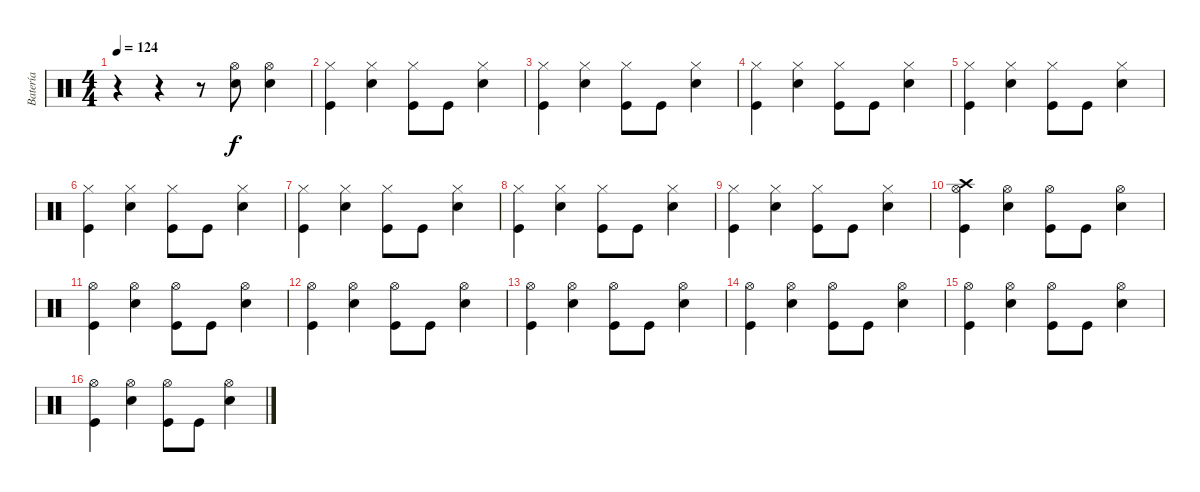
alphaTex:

\track ("Batería" "Batería") {instrument percussion}
\staff {score}
\articulation defaults
\ts (4 4)
\tempo 124
\clef neutral
\ks c
r.4{dy f} r.4 r.8 ("Hi-Hat (open)" "Snare (hit) 2").8 ("Hi-Hat (open)" "Snare (hit) 2").4 |
("Hi-Hat (closed)" "Kick (hit)").4 ("Hi-Hat (closed)" "Snare (hit) 2").4 ("Hi-Hat (closed)" "Kick (hit)").8 "Kick (hit)".8 ("Hi-Hat (closed)" "Snare (hit) 2").4 |
("Hi-Hat (closed)" "Kick (hit)").4 ("Hi-Hat (closed)" "Snare (hit) 2").4 ("Hi-Hat (closed)" "Kick (hit)").8 "Kick (hit)".8 ("Hi-Hat (closed)" "Snare (hit) 2").4 |
("Hi-Hat (closed)" "Kick (hit)").4 ("Hi-Hat (closed)" "Snare (hit) 2").4 ("Hi-Hat (closed)" "Kick (hit)").8 "Kick (hit)".8 ("Hi-Hat (closed)" "Snare (hit) 2").4 |
("Hi-Hat (closed)" "Kick (hit)").4 ("Hi-Hat (closed)" "Snare (hit) 2").4 ("Hi-Hat (closed)" "Kick (hit)").8 "Kick (hit)".8 ("Hi-Hat (closed)" "Snare (hit) 2").4 |
("Hi-Hat (closed)" "Kick (hit)").4 ("Hi-Hat (closed)" "Snare (hit) 2").4 ("Hi-Hat (closed)" "Kick (hit)").8 "Kick (hit)".8 ("Hi-Hat (closed)" "Snare (hit) 2").4 |
("Hi-Hat (closed)" "Kick (hit)").4 ("Hi-Hat (closed)" "Snare (hit) 2").4 ("Hi-Hat (closed)" "Kick (hit)").8 "Kick (hit)".8 ("Hi-Hat (closed)" "Snare (hit) 2").4 |
("Hi-Hat (closed)" "Kick (hit)").4 ("Hi-Hat (closed)" "Snare (hit) 2").4 ("Hi-Hat (closed)" "Kick (hit)").8 "Kick (hit)".8 ("Hi-Hat (closed)" "Snare (hit) 2").4 |
("Hi-Hat (closed)" "Kick (hit)").4 ("Hi-Hat (closed)" "Snare (hit) 2").4 ("Hi-Hat (closed)" "Kick (hit)").8 "Kick (hit)".8 ("Hi-Hat (closed)" "Snare (hit) 2").4 |
("Crash high (hit)" "Hi-Hat (open)" "Kick (hit)").4 ("Hi-Hat (open)" "Snare (hit) 2").4 ("Hi-Hat (open)" "Kick (hit)").8 "Kick (hit)".8 ("Hi-Hat (open)" "Snare (hit) 2").4 |
("Hi-Hat (open)" "Kick (hit)").4 ("Hi-Hat (open)" "Snare (hit) 2").4 ("Hi-Hat (open)" "Kick (hit)").8 "Kick (hit)".8 ("Hi-Hat (open)" "Snare (hit) 2").4 |
("Hi-Hat (open)" "Kick (hit)").4 ("Hi-Hat (open)" "Snare (hit) 2").4 ("Hi-Hat (open)" "Kick (hit)").8 "Kick (hit)".8 ("Hi-Hat (open)" "Snare (hit) 2").4 |
("Hi-Hat (open)" "Kick (hit)").4 ("Hi-Hat (open)" "Snare (hit) 2").4 ("Hi-Hat (open)" "Kick (hit)").8 "Kick (hit)".8 ("Hi-Hat (open)" "Snare (hit) 2").4 |
("Hi-Hat (open)" "Kick (hit)").4 ("Hi-Hat (open)" "Snare (hit) 2").4 ("Hi-Hat (open)" "Kick (hit)").8 "Kick (hit)".8 ("Hi-Hat (open)" "Snare (hit) 2").4 |
("Hi-Hat (open)" "Kick (hit)").4 ("Hi-Hat (open)" "Snare (hit) 2").4 ("Hi-Hat (open)" "Kick (hit)").8 "Kick (hit)".8 ("Hi-Hat (open)" "Snare (hit) 2").4 |
("Hi-Hat (open)" "Kick (hit)").4 ("Hi-Hat (open)" "Snare (hit) 2").4 ("Hi-Hat (open)" "Kick (hit)").8 "Kick (hit)".8 ("Hi-Hat (open)" "Snare (hit) 2").4
